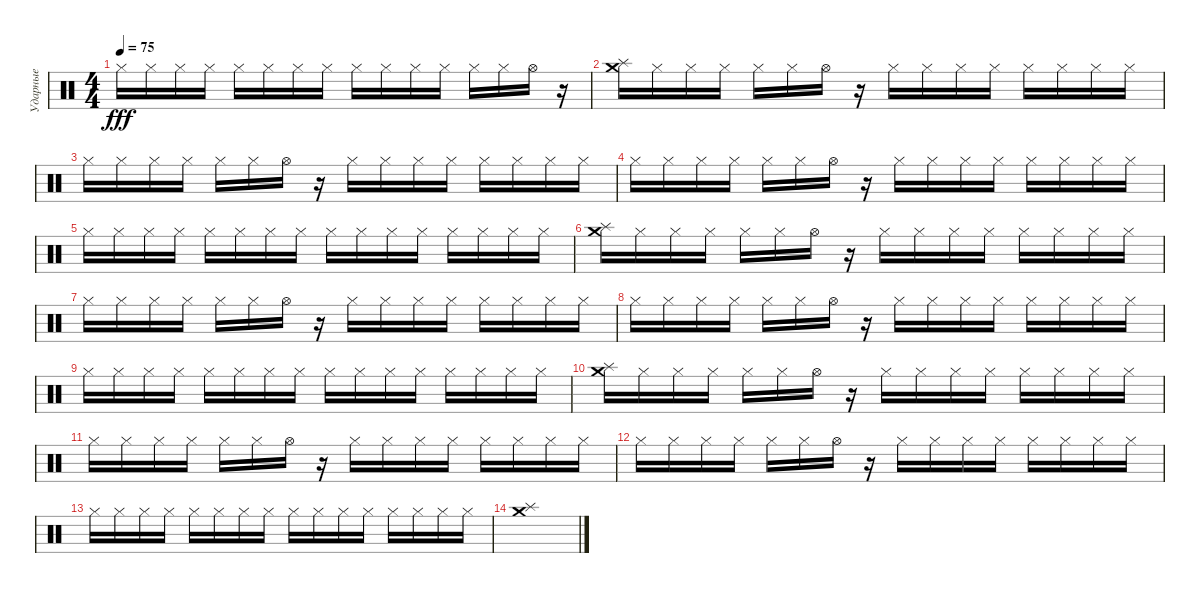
\track ("Ударные" "Ударные") {instrument percussion}
\staff {score}
\articulation defaults
\ts (4 4)
\tempo 75
\clef neutral
\ks c "Hi-Hat (closed)".16{dy fff} "Hi-Hat (closed)".16 "Hi-Hat (closed)".16 "Hi-Hat (closed)".16 "Hi-Hat (closed)".16 "Hi-Hat (closed)".16 "Hi-Hat (closed)".16 "Hi-Hat (closed)".16 "Hi-Hat (closed)".16 "Hi-Hat (closed)".16 "Hi-Hat (closed)".16 "Hi-Hat (closed)".16 "Hi-Hat (closed)".16 "Hi-Hat (closed)".16 "Hi-Hat (open)".16
r.16 |
("Splash (hit)" "Crash medium (hit)").16 "Hi-Hat (closed)".16 "Hi-Hat (closed)".16 "Hi-Hat (closed)".16 "Hi-Hat (closed)".16 "Hi-Hat (closed)".16 "Hi-Hat (open)".16 r.16 "Hi-Hat (closed)".16 "Hi-Hat (closed)".16 "Hi-Hat (closed)".16 "Hi-Hat (closed)".16 "Hi-Hat (closed)".16 "Hi-Hat (closed)".16 "Hi-Hat (closed)".16 "Hi-Hat (closed)".16 |
"Hi-Hat (closed)".16 "Hi-Hat (closed)".16 "Hi-Hat (closed)".16 "Hi-Hat (closed)".16 "Hi-Hat (closed)".16 "Hi-Hat (closed)".16 "Hi-Hat (open)".16 r.16 "Hi-Hat (closed)".16 "Hi-Hat (closed)".16 "Hi-Hat (closed)".16 "Hi-Hat (closed)".16 "Hi-Hat (closed)".16 "Hi-Hat (closed)".16 "Hi-Hat (closed)".16 "Hi-Hat (closed)".16 |
"Hi-Hat (closed)".16 "Hi-Hat (closed)".16 "Hi-Hat (closed)".16 "Hi-Hat (closed)".16 "Hi-Hat (closed)".16 "Hi-Hat (closed)".16 "Hi-Hat (open)".16 r.16 "Hi-Hat (closed)".16 "Hi-Hat (closed)".16 "Hi-Hat (closed)".16 "Hi-Hat (closed)".16 "Hi-Hat (closed)".16 "Hi-Hat (closed)".16 "Hi-Hat (closed)".16 "Hi-Hat (closed)".16 |
"Hi-Hat (closed)".16 "Hi-Hat (closed)".16 "Hi-Hat (closed)".16 "Hi-Hat (closed)".16 "Hi-Hat (closed)".16 "Hi-Hat (closed)".16 "Hi-Hat (closed)".16 "Hi-Hat (closed)".16 "Hi-Hat (closed)".16 "Hi-Hat (closed)".16 "Hi-Hat (closed)".16 "Hi-Hat (closed)".16 "Hi-Hat (closed)".16 "Hi-Hat (closed)".16 "Hi-Hat (closed)".16 "Hi-Hat (closed)".16 |
("Splash (hit)" "Crash medium (hit)").16 "Hi-Hat (closed)".16 "Hi-Hat (closed)".16 "Hi-Hat (closed)".16 "Hi-Hat (closed)".16 "Hi-Hat (closed)".16 "Hi-Hat (open)".16 r.16 "Hi-Hat (closed)".16 "Hi-Hat (closed)".16 "Hi-Hat (closed)".16 "Hi-Hat (closed)".16 "Hi-Hat (closed)".16 "Hi-Hat (closed)".16 "Hi-Hat (closed)".16 "Hi-Hat (closed)".16 |
"Hi-Hat (closed)".16 "Hi-Hat (closed)".16 "Hi-Hat (closed)".16 "Hi-Hat (closed)".16 "Hi-Hat (closed)".16 "Hi-Hat (closed)".16 "Hi-Hat (open)".16 r.16 "Hi-Hat (closed)".16 "Hi-Hat (closed)".16 "Hi-Hat (closed)".16 "Hi-Hat (closed)".16 "Hi-Hat (closed)".16 "Hi-Hat (closed)".16 "Hi-Hat (closed)".16 "Hi-Hat (closed)".16 |
"Hi-Hat (closed)".16 "Hi-Hat (closed)".16 "Hi-Hat (closed)".16 "Hi-Hat (closed)".16 "Hi-Hat (closed)".16 "Hi-Hat (closed)".16 "Hi-Hat (open)".16 r.16 "Hi-Hat (closed)".16 "Hi-Hat (closed)".16 "Hi-Hat (closed)".16 "Hi-Hat (closed)".16 "Hi-Hat (closed)".16 "Hi-Hat (closed)".16 "Hi-Hat (closed)".16 "Hi-Hat (closed)".16 |
"Hi-Hat (closed)".16 "Hi-Hat (closed)".16 "Hi-Hat (closed)".16 "Hi-Hat (closed)".16 "Hi-Hat (closed)".16 "Hi-Hat (closed)".16 "Hi-Hat (closed)".16 "Hi-Hat (closed)".16 "Hi-Hat (closed)".16 "Hi-Hat (closed)".16 "Hi-Hat (closed)".16 "Hi-Hat (closed)".16 "Hi-Hat (closed)".16 "Hi-Hat (closed)".16 "Hi-Hat (closed)".16 "Hi-Hat (closed)".16 |
("Splash (hit)" "Crash medium (hit)").16 "Hi-Hat (closed)".16 "Hi-Hat (closed)".16 "Hi-Hat (closed)".16 "Hi-Hat (closed)".16 "Hi-Hat (closed)".16 "Hi-Hat (open)".16 r.16 "Hi-Hat (closed)".16 "Hi-Hat (closed)".16 "Hi-Hat (closed)".16 "Hi-Hat (closed)".16 "Hi-Hat (closed)".16 "Hi-Hat (closed)".16 "Hi-Hat (closed)".16 "Hi-Hat (closed)".16 |
"Hi-Hat (closed)".16 "Hi-Hat (closed)".16 "Hi-Hat (closed)".16 "Hi-Hat (closed)".16 "Hi-Hat (closed)".16 "Hi-Hat (closed)".16 "Hi-Hat (open)".16 r.16 "Hi-Hat (closed)".16 "Hi-Hat (closed)".16 "Hi-Hat (closed)".16 "Hi-Hat (closed)".16 "Hi-Hat (closed)".16 "Hi-Hat (closed)".16 "Hi-Hat (closed)".16 "Hi-Hat (closed)".16 |
"Hi-Hat (closed)".16 "Hi-Hat (closed)".16 "Hi-Hat (closed)".16 "Hi-Hat (closed)".16 "Hi-Hat (closed)".16 "Hi-Hat (closed)".16 "Hi-Hat (open)".16 r.16 "Hi-Hat (closed)".16 "Hi-Hat (closed)".16 "Hi-Hat (closed)".16 "Hi-Hat (closed)".16 "Hi-Hat (closed)".16 "Hi-Hat (closed)".16 "Hi-Hat (closed)".16 "Hi-Hat (closed)".16 |
"Hi-Hat (closed)".16 "Hi-Hat (closed)".16 "Hi-Hat (closed)".16 "Hi-Hat (closed)".16 "Hi-Hat (closed)".16 "Hi-Hat (closed)".16 "Hi-Hat (closed)".16 "Hi-Hat (closed)".16 "Hi-Hat (closed)".16 "Hi-Hat (closed)".16 "Hi-Hat (closed)".16 "Hi-Hat (closed)".16 "Hi-Hat (closed)".16 "Hi-Hat (closed)".16 "Hi-Hat (closed)".16 "Hi-Hat (closed)".16 |
("Crash medium (hit)" "Splash (hit)").1
